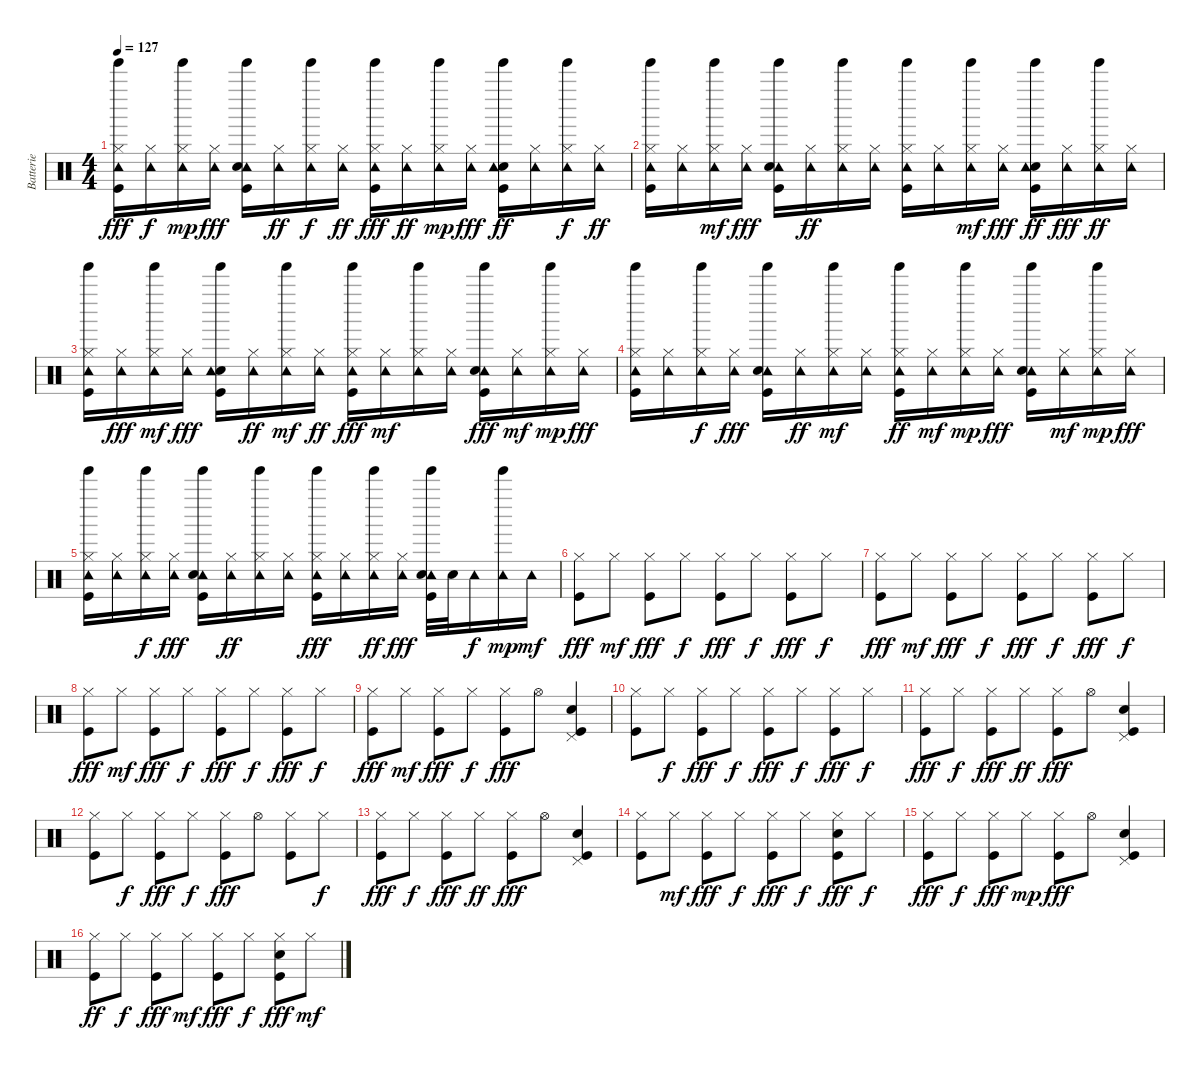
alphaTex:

\track ("Batterie" "Batterie") {instrument percussion}
\staff {score}
\articulation defaults
\ts (4 4)
\tempo 127
\clef neutral
\ks c
("Tinkle Bell (hit)" "Tambourine (hit)" "Hi-Hat (closed)" "Kick (hit)").16{dy fff} ("Tambourine (hit)" "Hi-Hat (closed)").16{dy f} ("Tinkle Bell (hit)" "Hi-Hat (closed)" "Tambourine (hit)").16{dy mp} ("Tambourine (hit)" "Hi-Hat (closed)").16{dy fff} ("Tinkle Bell (hit)" "Tambourine (hit)" "Kick (hit)" "Snare (hit) 2").16 ("Tambourine (hit)" "Hi-Hat (closed)").16{dy ff} ("Tinkle Bell (hit)" "Tambourine (hit)" "Hi-Hat (closed)").16{dy f} ("Tambourine (hit)" "Hi-Hat (closed)").16{dy ff} ("Tinkle Bell (hit)" "Tambourine (hit)" "Hi-Hat (closed)" "Kick (hit)").16{dy fff} ("Tambourine (hit)" "Hi-Hat (closed)").16{dy ff} ("Hi-Hat (closed)" "Tambourine (hit)" "Tinkle Bell (hit)").16{dy mp} ("Tambourine (hit)" "Hi-Hat (closed)").16{dy fff} ("Tinkle Bell (hit)" "Kick (hit)" "Snare (hit) 2" "Tambourine (hit)").16{dy ff} ("Tambourine (hit)" "Hi-Hat (closed)").16 ("Tinkle Bell (hit)" "Tambourine (hit)" "Hi-Hat (closed)").16{dy f} ("Tambourine (hit)" "Hi-Hat (closed)").16{dy ff} |
("Tinkle Bell (hit)" "Kick (hit)" "Hi-Hat (closed)" "Tambourine (hit)").16 ("Tambourine (hit)" "Hi-Hat (closed)").16 ("Hi-Hat (closed)" "Tinkle Bell (hit)" "Tambourine (hit)").16{dy mf} ("Tambourine (hit)" "Hi-Hat (closed)").16{dy fff} ("Tinkle Bell (hit)" "Kick (hit)" "Tambourine (hit)" "Snare (hit) 2").16 ("Tambourine (hit)" "Hi-Hat (closed)").16{dy ff} ("Tinkle Bell (hit)" "Tambourine (hit)" "Hi-Hat (closed)").16 ("Tambourine (hit)" "Hi-Hat (closed)").16 ("Tinkle Bell (hit)" "Kick (hit)" "Hi-Hat (closed)" "Tambourine (hit)").16 ("Tambourine (hit)" "Hi-Hat (closed)").16 ("Tinkle Bell (hit)" "Hi-Hat (closed)" "Tambourine (hit)").16{dy mf} ("Tambourine (hit)" "Hi-Hat (closed)").16{dy fff} ("Tinkle Bell (hit)" "Kick (hit)" "Snare (hit) 2" "Tambourine (hit)").16{dy ff} ("Tambourine (hit)" "Hi-Hat (closed)").16{dy fff} ("Tambourine (hit)" "Tinkle Bell (hit)" "Hi-Hat (closed)").16{dy ff} ("Tambourine (hit)" "Hi-Hat (closed)").16 |
("Tinkle Bell (hit)" "Kick (hit)" "Hi-Hat (closed)" "Tambourine (hit)").16 ("Tambourine (hit)" "Hi-Hat (closed)").16{dy fff} ("Hi-Hat (closed)" "Tambourine (hit)" "Tinkle Bell (hit)").16{dy mf} ("Tambourine (hit)" "Hi-Hat (closed)").16{dy fff} ("Tinkle Bell (hit)" "Snare (hit) 2" "Tambourine (hit)" "Kick (hit)").16 ("Tambourine (hit)" "Hi-Hat (closed)").16{dy ff} ("Tinkle Bell (hit)" "Hi-Hat (closed)" "Tambourine (hit)").16{dy mf} ("Tambourine (hit)" "Hi-Hat (closed)").16{dy ff} ("Tinkle Bell (hit)" "Hi-Hat (closed)" "Tambourine (hit)" "Kick (hit)").16{dy fff} ("Hi-Hat (closed)" "Tambourine (hit)").16{dy mf} ("Tinkle Bell (hit)" "Hi-Hat (closed)" "Tambourine (hit)").16 ("Hi-Hat (closed)" "Tambourine (hit)").16 ("Tinkle Bell (hit)" "Kick (hit)" "Tambourine (hit)" "Snare (hit) 2").16{dy fff} ("Hi-Hat (closed)" "Tambourine (hit)").16{dy mf} ("Hi-Hat (closed)" "Tinkle Bell (hit)" "Tambourine (hit)").16{dy mp} ("Tambourine (hit)" "Hi-Hat (closed)").16{dy fff} |
("Hi-Hat (closed)" "Tambourine (hit)" "Tinkle Bell (hit)" "Kick (hit)").16 ("Tambourine (hit)" "Hi-Hat (closed)").16 ("Tambourine (hit)" "Tinkle Bell (hit)" "Hi-Hat (closed)").16{dy f} ("Tambourine (hit)" "Hi-Hat (closed)").16{dy fff} ("Tinkle Bell (hit)" "Kick (hit)" "Tambourine (hit)" "Snare (hit) 2").16 ("Tambourine (hit)" "Hi-Hat (closed)").16{dy ff} ("Hi-Hat (closed)" "Tambourine (hit)" "Tinkle Bell (hit)").16{dy mf} ("Hi-Hat (closed)" "Tambourine (hit)").16 ("Tinkle Bell (hit)" "Kick (hit)" "Hi-Hat (closed)" "Tambourine (hit)").16{dy ff} ("Hi-Hat (closed)" "Tambourine (hit)").16{dy mf} ("Tinkle Bell (hit)" "Hi-Hat (closed)" "Tambourine (hit)").16{dy mp} ("Tambourine (hit)" "Hi-Hat (closed)").16{dy fff} ("Tinkle Bell (hit)" "Tambourine (hit)" "Kick (hit)" "Snare (hit) 2").16 ("Hi-Hat (closed)" "Tambourine (hit)").16{dy mf} ("Tambourine (hit)" "Hi-Hat (closed)" "Tinkle Bell (hit)").16{dy mp} ("Tambourine (hit)" "Hi-Hat (closed)").16{dy fff} |
("Tambourine (hit)" "Tinkle Bell (hit)" "Kick (hit)" "Hi-Hat (closed)").16 ("Tambourine (hit)" "Hi-Hat (closed)").16 ("Tinkle Bell (hit)" "Tambourine (hit)" "Hi-Hat (closed)").16{dy f} ("Tambourine (hit)" "Hi-Hat (closed)").16{dy fff} ("Tambourine (hit)" "Tinkle Bell (hit)" "Kick (hit)" "Snare (hit) 2").16 ("Tambourine (hit)" "Hi-Hat (closed)").16{dy ff} ("Tinkle Bell (hit)" "Tambourine (hit)" "Hi-Hat (closed)").16 ("Tambourine (hit)" "Hi-Hat (closed)").16 ("Tinkle Bell (hit)" "Kick (hit)" "Tambourine (hit)" "Hi-Hat (closed)").16{dy fff} ("Tambourine (hit)" "Hi-Hat (closed)").16 ("Tambourine (hit)" "Tinkle Bell (hit)" "Hi-Hat (closed)").16{dy ff} ("Tambourine (hit)" "Hi-Hat (closed)").16{dy fff} ("Tambourine (hit)" "Tinkle Bell (hit)" "Snare (hit) 2" "Kick (hit)").32 "Snare (hit) 2".32 "Tambourine (hit)".16{dy f} ("Tambourine (hit)" "Tinkle Bell (hit)").16{dy mp} "Tambourine (hit)".16{dy mf} |
("Kick (hit)" "Hi-Hat (closed)").8{dy fff} "Hi-Hat (closed)".8{dy mf} ("Kick (hit)" "Hi-Hat (closed)").8{dy fff} "Hi-Hat (closed)".8{dy f} ("Kick (hit)" "Hi-Hat (closed)").8{dy fff} "Hi-Hat (closed)".8{dy f} ("Kick (hit)" "Hi-Hat (closed)").8{dy fff} "Hi-Hat (closed)".8{dy f} |
("Kick (hit)" "Hi-Hat (closed)").8{dy fff} "Hi-Hat (closed)".8{dy mf} ("Kick (hit)" "Hi-Hat (closed)").8{dy fff} "Hi-Hat (closed)".8{dy f} ("Kick (hit)" "Hi-Hat (closed)").8{dy fff} "Hi-Hat (closed)".8{dy f} ("Kick (hit)" "Hi-Hat (closed)").8{dy fff} "Hi-Hat (closed)".8{dy f} |
("Kick (hit)" "Hi-Hat (closed)").8{dy fff} "Hi-Hat (closed)".8{dy mf} ("Kick (hit)" "Hi-Hat (closed)").8{dy fff} "Hi-Hat (closed)".8{dy f} ("Kick (hit)" "Hi-Hat (closed)").8{dy fff} "Hi-Hat (closed)".8{dy f} ("Kick (hit)" "Hi-Hat (closed)").8{dy fff} "Hi-Hat (closed)".8{dy f} |
("Kick (hit)" "Hi-Hat (closed)").8{dy fff} "Hi-Hat (closed)".8{dy mf} ("Hi-Hat (closed)" "Kick (hit)").8{dy fff} "Hi-Hat (closed)".8{dy f} ("Kick (hit)" "Hi-Hat (closed)").8{dy fff} "Hi-Hat (open)".8 ("Pedal Hi-Hat (hit)" "Kick (hit)" "Snare (hit) 2").4 |
("Hi-Hat (closed)" "Kick (hit)").8 "Hi-Hat (closed)".8{dy f} ("Kick (hit)" "Hi-Hat (closed)").8{dy fff} "Hi-Hat (closed)".8{dy f} ("Hi-Hat (closed)" "Kick (hit)").8{dy fff} "Hi-Hat (closed)".8{dy f} ("Kick (hit)" "Hi-Hat (closed)").8{dy fff} "Hi-Hat (closed)".8{dy f} |
("Kick (hit)" "Hi-Hat (closed)").8{dy fff} "Hi-Hat (closed)".8{dy f} ("Kick (hit)" "Hi-Hat (closed)").8{dy fff} "Hi-Hat (closed)".8{dy ff} ("Kick (hit)" "Hi-Hat (closed)").8{dy fff} "Hi-Hat (open)".8 ("Kick (hit)" "Snare (hit) 2" "Pedal Hi-Hat (hit)").4 |
("Hi-Hat (closed)" "Kick (hit)").8 "Hi-Hat (closed)".8{dy f} ("Kick (hit)" "Hi-Hat (closed)").8{dy fff} "Hi-Hat (closed)".8{dy f} ("Kick (hit)" "Hi-Hat (closed)").8{dy fff} "Hi-Hat (open)".8 ("Hi-Hat (closed)" "Kick (hit)").8 "Hi-Hat (closed)".8{dy f} |
("Hi-Hat (closed)" "Kick (hit)").8{dy fff} "Hi-Hat (closed)".8{dy f} ("Hi-Hat (closed)" "Kick (hit)").8{dy fff} "Hi-Hat (closed)".8{dy ff} ("Kick (hit)" "Hi-Hat (closed)").8{dy fff} "Hi-Hat (open)".8 ("Kick (hit)" "Snare (hit) 2" "Pedal Hi-Hat (hit)").4 |
("Kick (hit)" "Hi-Hat (closed)").8 "Hi-Hat (closed)".8{dy mf} ("Kick (hit)" "Hi-Hat (closed)").8{dy fff} "Hi-Hat (closed)".8{dy f} ("Kick (hit)" "Hi-Hat (closed)").8{dy fff} "Hi-Hat (closed)".8{dy f} ("Kick (hit)" "Snare (hit) 2" "Hi-Hat (closed)").8{dy fff} "Hi-Hat (closed)".8{dy f} |
("Kick (hit)" "Hi-Hat (closed)").8{dy fff} "Hi-Hat (closed)".8{dy f} ("Kick (hit)" "Hi-Hat (closed)").8{dy fff} "Hi-Hat (closed)".8{dy mp} ("Kick (hit)" "Hi-Hat (closed)").8{dy fff} "Hi-Hat (open)".8 ("Pedal Hi-Hat (hit)" "Kick (hit)" "Snare (hit) 2").4 |
("Kick (hit)" "Hi-Hat (closed)").8{dy ff} "Hi-Hat (closed)".8{dy f} ("Kick (hit)" "Hi-Hat (closed)").8{dy fff} "Hi-Hat (closed)".8{dy mf} ("Hi-Hat (closed)" "Kick (hit)").8{dy fff} "Hi-Hat (closed)".8{dy f} ("Kick (hit)" "Snare (hit) 2" "Hi-Hat (closed)").8{dy fff} "Hi-Hat (closed)".8{dy mf}
